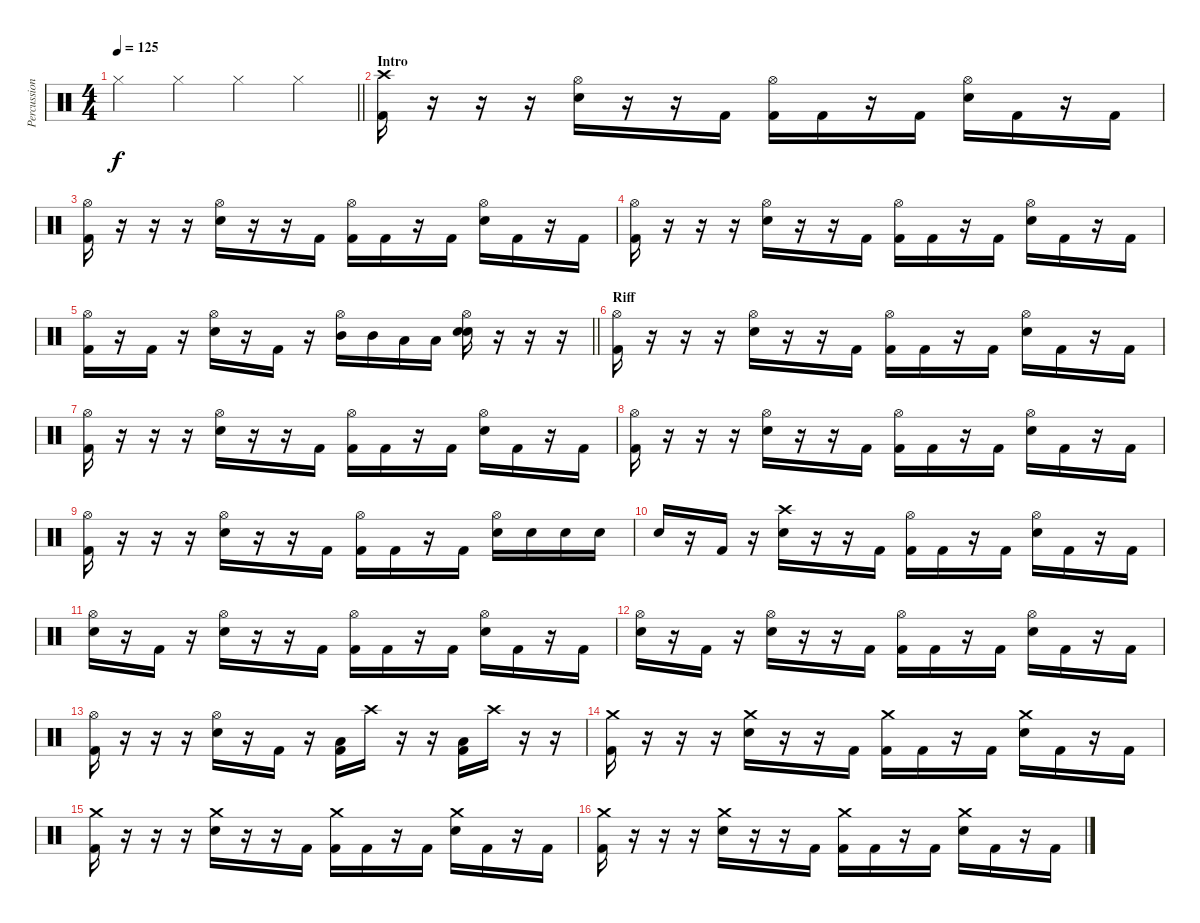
\track ("Percussion" "Percussion") {instrument percussion}
\staff {score}
\articulation defaults
\ts (4 4)
\tempo 125
\clef neutral
\barLineRight lightlight
\ks c "Hi-Hat (closed)".4{dy f} "Hi-Hat (closed)".4 "Hi-Hat (closed)".4 "Hi-Hat (closed)".4
|
\section ("" "Intro")
("Crash high (hit)" "Kick (hit) 2").16 r.16 r.16 r.16 ("Hi-Hat (open)" "Electric Snare (hit)").16 r.16 r.16 "Kick (hit) 2".16 ("Hi-Hat (open)" "Kick (hit) 2").16 "Kick (hit) 2".16 r.16 "Kick (hit) 2".16 ("Hi-Hat (open)" "Electric Snare (hit)").16 "Kick (hit) 2".16 r.16 "Kick (hit) 2".16 |
("Hi-Hat (open)" "Kick (hit) 2").16 r.16 r.16 r.16 ("Hi-Hat (open)" "Electric Snare (hit)").16 r.16 r.16 "Kick (hit) 2".16 ("Hi-Hat (open)" "Kick (hit) 2").16 "Kick (hit) 2".16 r.16 "Kick (hit) 2".16 ("Hi-Hat (open)" "Electric Snare (hit)").16 "Kick (hit) 2".16 r.16 "Kick (hit) 2".16 |
("Hi-Hat (open)" "Kick (hit) 2").16 r.16 r.16 r.16 ("Hi-Hat (open)" "Electric Snare (hit)").16 r.16 r.16 "Kick (hit) 2".16 ("Hi-Hat (open)" "Kick (hit) 2").16 "Kick (hit) 2".16 r.16 "Kick (hit) 2".16 ("Hi-Hat (open)" "Electric Snare (hit)").16 "Kick (hit) 2".16 r.16 "Kick (hit) 2".16 |
\barLineRight lightlight
("Hi-Hat (open)" "Kick (hit) 2").16 r.16 "Kick (hit) 2".16 r.16 ("Hi-Hat (open)" "Electric Snare (hit)").16 r.16 "Kick (hit) 2".16 r.16 ("Hi-Hat (open)" "Mid Tom (hit)").16 "Mid Tom (hit)".16 "Low Tom (hit)".16 "Low Tom (hit)".16 ("Hi-Hat (open)" "Electric Snare (hit)" "Electric Snare (hit)").16 r.16 r.16 r.16 |
\section ("" "Riff")
("Hi-Hat (open)" "Kick (hit) 2").16 r.16 r.16 r.16 ("Hi-Hat (open)" "Electric Snare (hit)").16 r.16 r.16 "Kick (hit) 2".16 ("Hi-Hat (open)" "Kick (hit) 2").16 "Kick (hit) 2".16 r.16 "Kick (hit) 2".16 ("Hi-Hat (open)" "Electric Snare (hit)").16 "Kick (hit) 2".16 r.16 "Kick (hit) 2".16 |
("Hi-Hat (open)" "Kick (hit) 2").16 r.16 r.16 r.16 ("Hi-Hat (open)" "Electric Snare (hit)").16 r.16 r.16 "Kick (hit) 2".16 ("Hi-Hat (open)" "Kick (hit) 2").16 "Kick (hit) 2".16 r.16 "Kick (hit) 2".16 ("Hi-Hat (open)" "Electric Snare (hit)").16 "Kick (hit) 2".16 r.16 "Kick (hit) 2".16 |
("Hi-Hat (open)" "Kick (hit) 2").16 r.16 r.16 r.16 ("Hi-Hat (open)" "Electric Snare (hit)").16 r.16 r.16 "Kick (hit) 2".16 ("Hi-Hat (open)" "Kick (hit) 2").16 "Kick (hit) 2".16 r.16 "Kick (hit) 2".16 ("Hi-Hat (open)" "Electric Snare (hit)").16 "Kick (hit) 2".16 r.16 "Kick (hit) 2".16 |
("Hi-Hat (open)" "Kick (hit) 2").16 r.16 r.16 r.16 ("Hi-Hat (open)" "Electric Snare (hit)").16 r.16 r.16 "Kick (hit) 2".16 ("Hi-Hat (open)" "Kick (hit) 2").16 "Kick (hit) 2".16 r.16 "Kick (hit) 2".16 ("Hi-Hat (open)" "Electric Snare (hit)").16 "Electric Snare (hit)".16 "Electric Snare (hit)".16 "Electric Snare (hit)".16 |
"Electric Snare (hit)".16 r.16 "Kick (hit) 2".16 r.16 ("Crash high (hit)" "Electric Snare (hit)").16 r.16 r.16 "Kick (hit) 2".16 ("Hi-Hat (open)" "Kick (hit) 2").16 "Kick (hit) 2".16 r.16 "Kick (hit) 2".16 ("Hi-Hat (open)" "Electric Snare (hit)").16 "Kick (hit) 2".16 r.16 "Kick (hit) 2".16 |
("Hi-Hat (open)" "Electric Snare (hit)").16 r.16 "Kick (hit) 2".16 r.16 ("Hi-Hat (open)" "Electric Snare (hit)").16 r.16 r.16 "Kick (hit) 2".16 ("Hi-Hat (open)" "Kick (hit) 2").16 "Kick (hit) 2".16 r.16 "Kick (hit) 2".16 ("Hi-Hat (open)" "Electric Snare (hit)").16 "Kick (hit) 2".16 r.16 "Kick (hit) 2".16 |
("Hi-Hat (open)" "Electric Snare (hit)").16 r.16 "Kick (hit) 2".16 r.16 ("Hi-Hat (open)" "Electric Snare (hit)").16 r.16 r.16 "Kick (hit) 2".16 ("Hi-Hat (open)" "Kick (hit) 2").16 "Kick (hit) 2".16 r.16 "Kick (hit) 2".16 ("Hi-Hat (open)" "Electric Snare (hit)").16 "Kick (hit) 2".16 r.16 "Kick (hit) 2".16 |
("Hi-Hat (open)" "Kick (hit) 2").16 r.16 r.16 r.16 ("Hi-Hat (open)" "Electric Snare (hit)").16 r.16 "Kick (hit) 2".16 r.16 ("Low Floor Tom (hit)" "Kick (hit) 2").16 "Crash high (hit)".16 r.16 r.16 ("Low Floor Tom (hit)" "Kick (hit) 2").16 "Crash high (hit)".16 r.16 r.16 |
("Crash medium (hit)" "Kick (hit) 2").16 r.16 r.16 r.16 ("Crash medium (hit)" "Electric Snare (hit)").16 r.16 r.16 "Kick (hit) 2".16 ("Crash medium (hit)" "Kick (hit) 2").16 "Kick (hit) 2".16 r.16 "Kick (hit) 2".16 ("Crash medium (hit)" "Electric Snare (hit)").16 "Kick (hit) 2".16 r.16 "Kick (hit) 2".16 |
("Crash medium (hit)" "Kick (hit) 2").16 r.16 r.16 r.16 ("Crash medium (hit)" "Electric Snare (hit)").16 r.16 r.16 "Kick (hit) 2".16 ("Crash medium (hit)" "Kick (hit) 2").16 "Kick (hit) 2".16 r.16 "Kick (hit) 2".16 ("Crash medium (hit)" "Electric Snare (hit)").16 "Kick (hit) 2".16 r.16 "Kick (hit) 2".16 |
("Crash medium (hit)" "Kick (hit) 2").16 r.16 r.16 r.16 ("Crash medium (hit)" "Electric Snare (hit)").16 r.16 r.16 "Kick (hit) 2".16 ("Crash medium (hit)" "Kick (hit) 2").16 "Kick (hit) 2".16 r.16 "Kick (hit) 2".16 ("Crash medium (hit)" "Electric Snare (hit)").16 "Kick (hit) 2".16 r.16 "Kick (hit) 2".16
